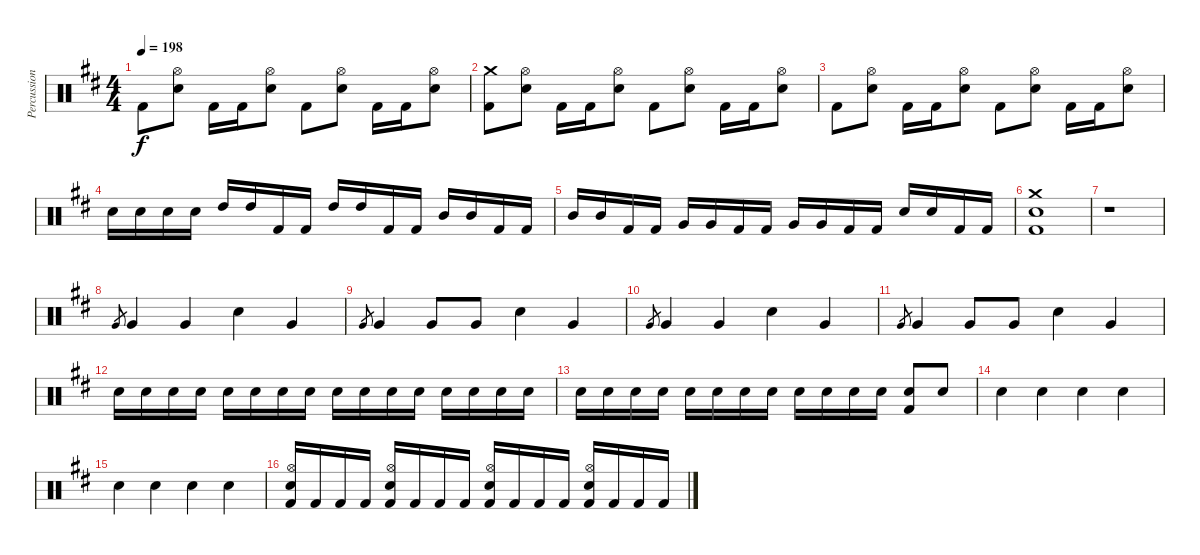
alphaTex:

\track ("Percussion" "Percussion") {instrument percussion}
\staff {score}
\articulation defaults
\ts (4 4)
\tempo 198
\clef neutral
\ks bminor "Kick (hit) 2".8{dy f}
("Hi-Hat (open)" "Snare (hit) 2").8 "Kick (hit) 2".16 "Kick (hit) 2".16 ("Hi-Hat (open)" "Snare (hit) 2").8 "Kick (hit) 2".8 ("Hi-Hat (open)" "Snare (hit) 2").8 "Kick (hit) 2".16 "Kick (hit) 2".16 ("Hi-Hat (open)" "Snare (hit) 2").8 |
("Crash medium (hit)" "Kick (hit) 2").8 ("Hi-Hat (open)" "Snare (hit) 2").8 "Kick (hit) 2".16 "Kick (hit) 2".16 ("Hi-Hat (open)" "Snare (hit) 2").8 "Kick (hit) 2".8 ("Hi-Hat (open)" "Snare (hit) 2").8 "Kick (hit) 2".16 "Kick (hit) 2".16 ("Hi-Hat (open)" "Snare (hit) 2").8 |
"Kick (hit) 2".8 ("Hi-Hat (open)" "Snare (hit) 2").8 "Kick (hit) 2".16 "Kick (hit) 2".16 ("Hi-Hat (open)" "Snare (hit) 2").8 "Kick (hit) 2".8 ("Hi-Hat (open)" "Snare (hit) 2").8 "Kick (hit) 2".16 "Kick (hit) 2".16 ("Hi-Hat (open)" "Snare (hit) 2").8 |
"Snare (hit) 2".16 "Snare (hit) 2".16 "Snare (hit) 2".16 "Snare (hit) 2".16 "High Tom (hit)".16 "High Tom (hit)".16 "Kick (hit) 2".16 "Kick (hit) 2".16 "High Tom (hit)".16 "High Tom (hit)".16 "Kick (hit) 2".16 "Kick (hit) 2".16 "Mid Tom (hit)".16 "Mid Tom (hit)".16 "Kick (hit) 2".16 "Kick (hit) 2".16 |
"Mid Tom (hit)".16 "Mid Tom (hit)".16 "Kick (hit) 2".16 "Kick (hit) 2".16 "Very Low Tom (hit)".16 "Very Low Tom (hit)".16 "Kick (hit) 2".16 "Kick (hit) 2".16 "Very Low Tom (hit)".16 "Very Low Tom (hit)".16 "Kick (hit) 2".16 "Kick (hit) 2".16 "Snare (hit) 2".16 "Snare (hit) 2".16 "Kick (hit) 2".16 "Kick (hit) 2".16 |
("Crash medium (hit)" "Snare (hit) 2" "Kick (hit) 2").1 |
r.1 |
"Very Low Tom (hit)".8{gr} "Very Low Tom (hit)".4 "Very Low Tom (hit)".4 "Snare (hit) 2".4 "Very Low Tom (hit)".4 |
"Very Low Tom (hit)".8{gr} "Very Low Tom (hit)".4 "Very Low Tom (hit)".8 "Very Low Tom (hit)".8 "Snare (hit) 2".4 "Very Low Tom (hit)".4 |
"Very Low Tom (hit)".8{gr} "Very Low Tom (hit)".4 "Very Low Tom (hit)".4 "Snare (hit) 2".4 "Very Low Tom (hit)".4 |
"Very Low Tom (hit)".8{gr} "Very Low Tom (hit)".4 "Very Low Tom (hit)".8 "Very Low Tom (hit)".8 "Snare (hit) 2".4 "Very Low Tom (hit)".4 |
"Snare (hit) 2".16 "Snare (hit) 2".16 "Snare (hit) 2".16 "Snare (hit) 2".16 "Snare (hit) 2".16 "Snare (hit) 2".16 "Snare (hit) 2".16 "Snare (hit) 2".16 "Snare (hit) 2".16 "Snare (hit) 2".16 "Snare (hit) 2".16 "Snare (hit) 2".16 "Snare (hit) 2".16 "Snare (hit) 2".16 "Snare (hit) 2".16 "Snare (hit) 2".16 |
"Snare (hit) 2".16 "Snare (hit) 2".16 "Snare (hit) 2".16 "Snare (hit) 2".16 "Snare (hit) 2".16 "Snare (hit) 2".16 "Snare (hit) 2".16 "Snare (hit) 2".16 "Snare (hit) 2".16 "Snare (hit) 2".16 "Snare (hit) 2".16 "Snare (hit) 2".16 ("Snare (hit) 2" "Kick (hit) 2").8 "Snare (hit) 2".8 |
"Snare (hit) 2".4 "Snare (hit) 2".4 "Snare (hit) 2".4 "Snare (hit) 2".4 |
"Snare (hit) 2".4 "Snare (hit) 2".4 "Snare (hit) 2".4 "Snare (hit) 2".4 |
("Hi-Hat (open)" "Snare (hit) 2" "Kick (hit) 2").16 "Kick (hit) 2".16 "Kick (hit) 2".16 "Kick (hit) 2".16 ("Hi-Hat (open)" "Snare (hit) 2" "Kick (hit) 2").16 "Kick (hit) 2".16 "Kick (hit) 2".16 "Kick (hit) 2".16 ("Hi-Hat (open)" "Snare (hit) 2" "Kick (hit) 2").16 "Kick (hit) 2".16 "Kick (hit) 2".16 "Kick (hit) 2".16 ("Hi-Hat (open)" "Snare (hit) 2" "Kick (hit) 2").16 "Kick (hit) 2".16 "Kick (hit) 2".16 "Kick (hit) 2".16
